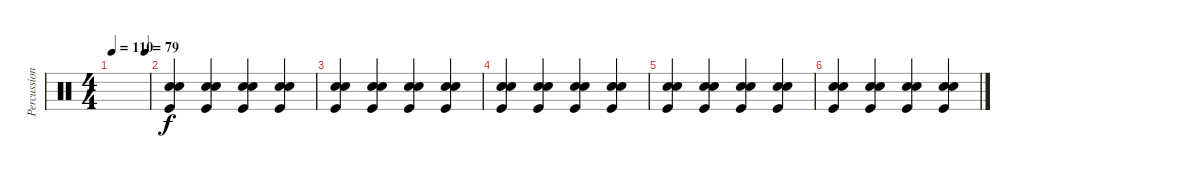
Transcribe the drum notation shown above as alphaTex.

\track ("Percussion" "Percussion") {instrument percussion}
\staff {score}
\articulation defaults
\ts (4 4)
\tempo 110
\tempo (79 0.8958333333333334)
\clef neutral
\ks c
|
("Electric Snare (hit)" "Snare (hit) 2" "Kick (hit)").4 ("Electric Snare (hit)" "Snare (hit) 2" "Kick (hit)").4 ("Electric Snare (hit)" "Snare (hit) 2" "Kick (hit)").4 ("Electric Snare (hit)" "Snare (hit) 2" "Kick (hit)").4 |
("Electric Snare (hit)" "Snare (hit) 2" "Kick (hit)").4 ("Electric Snare (hit)" "Snare (hit) 2" "Kick (hit)").4 ("Electric Snare (hit)" "Snare (hit) 2" "Kick (hit)").4 ("Electric Snare (hit)" "Snare (hit) 2" "Kick (hit)").4 |
("Electric Snare (hit)" "Snare (hit) 2" "Kick (hit)").4 ("Electric Snare (hit)" "Snare (hit) 2" "Kick (hit)").4 ("Electric Snare (hit)" "Snare (hit) 2" "Kick (hit)").4 ("Electric Snare (hit)" "Snare (hit) 2" "Kick (hit)").4 |
("Electric Snare (hit)" "Snare (hit) 2" "Kick (hit)").4 ("Electric Snare (hit)" "Snare (hit) 2" "Kick (hit)").4 ("Electric Snare (hit)" "Snare (hit) 2" "Kick (hit)").4 ("Electric Snare (hit)" "Snare (hit) 2" "Kick (hit)").4 |
("Electric Snare (hit)" "Snare (hit) 2" "Kick (hit)").4 ("Electric Snare (hit)" "Snare (hit) 2" "Kick (hit)").4 ("Electric Snare (hit)" "Snare (hit) 2" "Kick (hit)").4 ("Electric Snare (hit)" "Snare (hit) 2" "Kick (hit)").4
